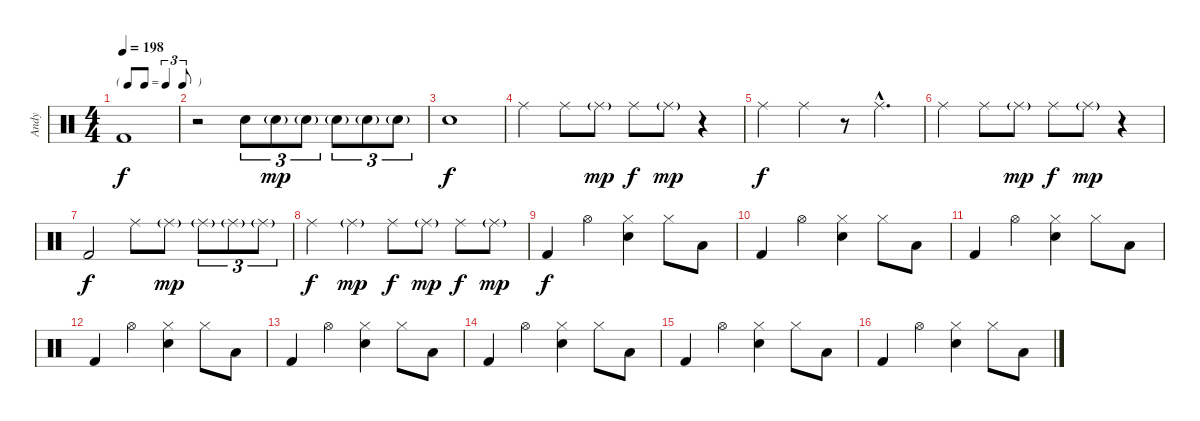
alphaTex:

\track ("Andy" "Andy") {instrument percussion}
\staff {score}
\articulation defaults
\ts (4 4)
\tf triplet8th
\tempo 198
\clef neutral
\ks c "Kick (hit) 2".1{dy f}
|
r.2 "Electric Snare (hit)".8{tu (3 2)} "Electric Snare (hit)"{g}.8{tu (3 2) dy mp} "Electric Snare (hit)"{g}.8{tu (3 2)} "Electric Snare (hit)"{g}.8{tu (3 2)} "Electric Snare (hit)"{g}.8{tu (3 2)} "Electric Snare (hit)"{g}.8{tu (3 2)} |
"Electric Snare (hit)".1{dy f} |
"Ride (middle)".4 "Ride (middle)".8 "Ride (middle)"{g}.8{dy mp} "Ride (middle)".8{dy f} "Ride (middle)"{g}.8{dy mp} r.4 |
"Ride (middle)".4{dy f} "Ride (middle)".4 r.8 "Ride (middle)"{hac}.4{d} |
"Ride (middle)".4 "Ride (middle)".8 "Ride (middle)"{g}.8{dy mp} "Ride (middle)".8{dy f} "Ride (middle)"{g}.8{dy mp} r.4 |
"Kick (hit) 2".2{dy f} "Ride (middle)".8 "Ride (middle)"{g}.8{dy mp} "Ride (middle)"{g}.8{tu (3 2)} "Ride (middle)"{g}.8{tu (3 2)} "Ride (middle)"{g}.8{tu (3 2)} |
"Ride (middle)".4{dy f} "Ride (middle)"{g}.4{dy mp} "Ride (middle)".8{dy f} "Ride (middle)"{g}.8{dy mp} "Ride (middle)".8{dy f} "Ride (middle)"{g}.8{dy mp} |
"Kick (hit) 2".4{dy f} "Hi-Hat (open)".4 ("Hi-Hat (closed)" "Electric Snare (hit)").4 "Hi-Hat (closed)".8 "Low Floor Tom (hit)".8 |
"Kick (hit) 2".4 "Hi-Hat (open)".4 ("Hi-Hat (closed)" "Electric Snare (hit)").4 "Hi-Hat (closed)".8 "Low Floor Tom (hit)".8 |
"Kick (hit) 2".4 "Hi-Hat (open)".4 ("Hi-Hat (closed)" "Electric Snare (hit)").4 "Hi-Hat (closed)".8 "Low Floor Tom (hit)".8 |
"Kick (hit) 2".4 "Hi-Hat (open)".4 ("Hi-Hat (closed)" "Electric Snare (hit)").4 "Hi-Hat (closed)".8 "Low Floor Tom (hit)".8 |
"Kick (hit) 2".4 "Hi-Hat (open)".4 ("Hi-Hat (closed)" "Electric Snare (hit)").4 "Hi-Hat (closed)".8 "Low Floor Tom (hit)".8 |
"Kick (hit) 2".4 "Hi-Hat (open)".4 ("Hi-Hat (closed)" "Electric Snare (hit)").4 "Hi-Hat (closed)".8 "Low Floor Tom (hit)".8 |
"Kick (hit) 2".4 "Hi-Hat (open)".4 ("Hi-Hat (closed)" "Electric Snare (hit)").4 "Hi-Hat (closed)".8 "Low Floor Tom (hit)".8 |
"Kick (hit) 2".4 "Hi-Hat (open)".4 ("Hi-Hat (closed)" "Electric Snare (hit)").4 "Hi-Hat (closed)".8 "Low Floor Tom (hit)".8
